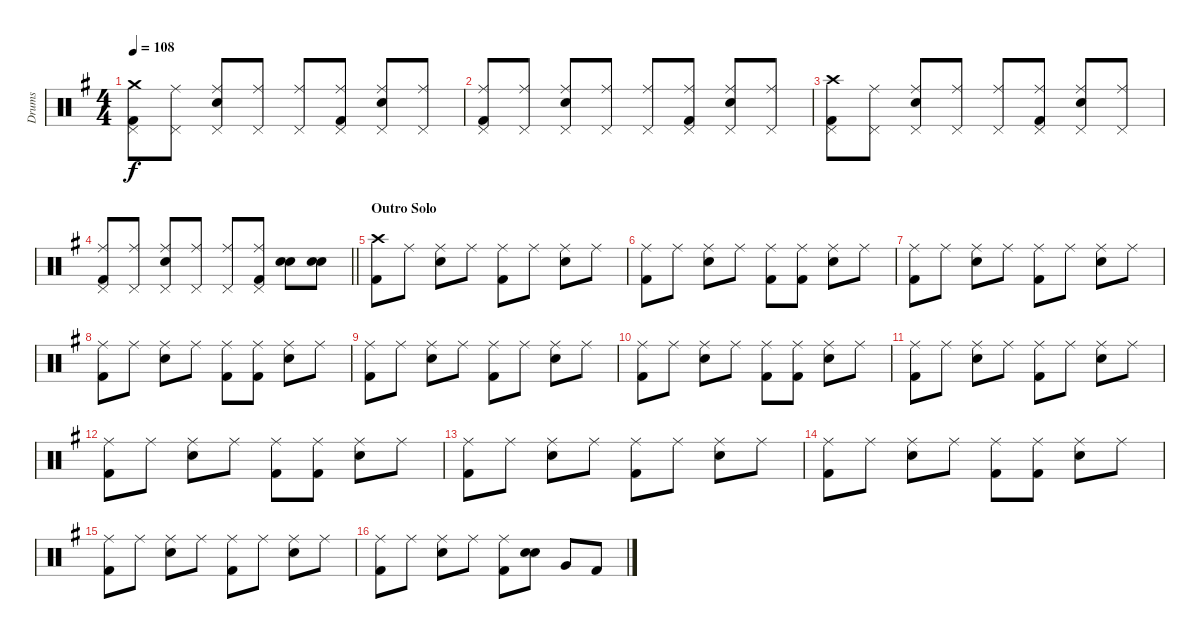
\track ("Drums" "Drums") {instrument percussion}
\staff {score}
\articulation defaults
\ts (4 4)
\tempo 108
\clef neutral
\ks g
("Crash medium (hit)" "Kick (hit) 2" "Pedal Hi-Hat (hit)").8{dy f} ("Ride (middle)" "Pedal Hi-Hat (hit)").8 ("Ride (middle)" "Electric Snare (hit)" "Pedal Hi-Hat (hit)").8 ("Ride (middle)" "Pedal Hi-Hat (hit)").8 ("Ride (middle)" "Pedal Hi-Hat (hit)").8 ("Ride (middle)" "Kick (hit) 2" "Pedal Hi-Hat (hit)").8 ("Ride (middle)" "Electric Snare (hit)" "Pedal Hi-Hat (hit)").8 ("Ride (middle)" "Pedal Hi-Hat (hit)").8 |
("Ride (middle)" "Kick (hit) 2" "Pedal Hi-Hat (hit)").8 ("Ride (middle)" "Pedal Hi-Hat (hit)").8 ("Ride (middle)" "Electric Snare (hit)" "Pedal Hi-Hat (hit)").8 ("Ride (middle)" "Pedal Hi-Hat (hit)").8 ("Ride (middle)" "Pedal Hi-Hat (hit)").8 ("Ride (middle)" "Kick (hit) 2" "Pedal Hi-Hat (hit)").8 ("Ride (middle)" "Electric Snare (hit)" "Pedal Hi-Hat (hit)").8 ("Ride (middle)" "Pedal Hi-Hat (hit)").8 |
("Crash high (hit)" "Kick (hit) 2" "Pedal Hi-Hat (hit)").8 ("Ride (middle)" "Pedal Hi-Hat (hit)").8 ("Ride (middle)" "Electric Snare (hit)" "Pedal Hi-Hat (hit)").8 ("Ride (middle)" "Pedal Hi-Hat (hit)").8 ("Ride (middle)" "Pedal Hi-Hat (hit)").8 ("Ride (middle)" "Kick (hit) 2" "Pedal Hi-Hat (hit)").8 ("Ride (middle)" "Electric Snare (hit)" "Pedal Hi-Hat (hit)").8 ("Ride (middle)" "Pedal Hi-Hat (hit)").8 |
\barLineRight lightlight
("Ride (middle)" "Kick (hit) 2" "Pedal Hi-Hat (hit)").8 ("Ride (middle)" "Pedal Hi-Hat (hit)").8 ("Ride (middle)" "Electric Snare (hit)" "Pedal Hi-Hat (hit)").8 ("Ride (middle)" "Pedal Hi-Hat (hit)").8 ("Ride (middle)" "Pedal Hi-Hat (hit)").8 ("Ride (middle)" "Kick (hit) 2" "Pedal Hi-Hat (hit)").8 ("Electric Snare (hit)" "Electric Snare (hit)").8 ("Electric Snare (hit)" "Electric Snare (hit)").8 |
\section ("" "Outro Solo")
("Crash high (hit)" "Kick (hit) 2").8 "Ride (middle)".8 ("Ride (middle)" "Electric Snare (hit)").8 "Ride (middle)".8 ("Ride (middle)" "Kick (hit) 2").8 "Ride (middle)".8 ("Ride (middle)" "Electric Snare (hit)").8 "Ride (middle)".8 |
("Ride (middle)" "Kick (hit) 2").8 "Ride (middle)".8 ("Ride (middle)" "Electric Snare (hit)").8 "Ride (middle)".8 ("Ride (middle)" "Kick (hit) 2").8 ("Ride (middle)" "Kick (hit) 2").8 ("Ride (middle)" "Electric Snare (hit)").8 "Ride (middle)".8 |
("Ride (middle)" "Kick (hit) 2").8 "Ride (middle)".8 ("Ride (middle)" "Electric Snare (hit)").8 "Ride (middle)".8 ("Ride (middle)" "Kick (hit) 2").8 "Ride (middle)".8 ("Ride (middle)" "Electric Snare (hit)").8 "Ride (middle)".8 |
("Ride (middle)" "Kick (hit) 2").8 "Ride (middle)".8 ("Ride (middle)" "Electric Snare (hit)").8 "Ride (middle)".8 ("Ride (middle)" "Kick (hit) 2").8 ("Ride (middle)" "Kick (hit) 2").8 ("Ride (middle)" "Electric Snare (hit)").8 "Ride (middle)".8 |
("Ride (middle)" "Kick (hit) 2").8 "Ride (middle)".8 ("Ride (middle)" "Electric Snare (hit)").8 "Ride (middle)".8 ("Ride (middle)" "Kick (hit) 2").8 "Ride (middle)".8 ("Ride (middle)" "Electric Snare (hit)").8 "Ride (middle)".8 |
("Ride (middle)" "Kick (hit) 2").8 "Ride (middle)".8 ("Ride (middle)" "Electric Snare (hit)").8 "Ride (middle)".8 ("Ride (middle)" "Kick (hit) 2").8 ("Ride (middle)" "Kick (hit) 2").8 ("Ride (middle)" "Electric Snare (hit)").8 "Ride (middle)".8 |
("Ride (middle)" "Kick (hit) 2").8 "Ride (middle)".8 ("Ride (middle)" "Electric Snare (hit)").8 "Ride (middle)".8 ("Ride (middle)" "Kick (hit) 2").8 "Ride (middle)".8 ("Ride (middle)" "Electric Snare (hit)").8 "Ride (middle)".8 |
("Ride (middle)" "Kick (hit) 2").8 "Ride (middle)".8 ("Ride (middle)" "Electric Snare (hit)").8 "Ride (middle)".8 ("Ride (middle)" "Kick (hit) 2").8 ("Ride (middle)" "Kick (hit) 2").8 ("Ride (middle)" "Electric Snare (hit)").8 "Ride (middle)".8 |
("Ride (middle)" "Kick (hit) 2").8 "Ride (middle)".8 ("Ride (middle)" "Electric Snare (hit)").8 "Ride (middle)".8 ("Ride (middle)" "Kick (hit) 2").8 "Ride (middle)".8 ("Ride (middle)" "Electric Snare (hit)").8 "Ride (middle)".8 |
("Ride (middle)" "Kick (hit) 2").8 "Ride (middle)".8 ("Ride (middle)" "Electric Snare (hit)").8 "Ride (middle)".8 ("Ride (middle)" "Kick (hit) 2").8 ("Ride (middle)" "Kick (hit) 2").8 ("Ride (middle)" "Electric Snare (hit)").8 "Ride (middle)".8 |
("Ride (middle)" "Kick (hit) 2").8 "Ride (middle)".8 ("Ride (middle)" "Electric Snare (hit)").8 "Ride (middle)".8 ("Ride (middle)" "Kick (hit) 2").8 "Ride (middle)".8 ("Ride (middle)" "Electric Snare (hit)").8 "Ride (middle)".8 |
("Ride (middle)" "Kick (hit) 2").8 "Ride (middle)".8 ("Ride (middle)" "Electric Snare (hit)").8 "Ride (middle)".8 ("Ride (middle)" "Kick (hit) 2").8 ("Electric Snare (hit)" "Electric Snare (hit)").8 "Very Low Tom (hit)".8 "Kick (hit) 2".8
